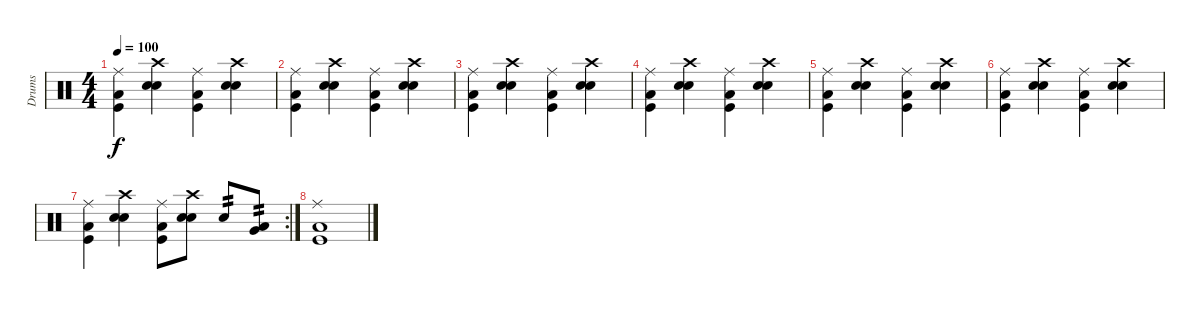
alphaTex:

\track ("Drums" "Drums") {instrument percussion}
\staff {score}
\articulation defaults
\ts (4 4)
\tempo 100
\clef neutral
\ks c
("Ride (middle)" "Kick (hit)" "Low Floor Tom (hit)").4{dy f} ("Crash high (hit)" "Snare (hit) 2" "Electric Snare (hit)").4 ("Ride (middle)" "Kick (hit)" "Low Floor Tom (hit)").4 ("Crash high (hit)" "Snare (hit) 2" "Electric Snare (hit)").4 |
("Ride (middle)" "Kick (hit)" "Low Floor Tom (hit)").4 ("Crash high (hit)" "Snare (hit) 2" "Electric Snare (hit)").4 ("Ride (middle)" "Kick (hit)" "Low Floor Tom (hit)").4 ("Crash high (hit)" "Snare (hit) 2" "Electric Snare (hit)").4 |
("Ride (middle)" "Kick (hit)" "Low Floor Tom (hit)").4 ("Crash high (hit)" "Snare (hit) 2" "Electric Snare (hit)").4 ("Ride (middle)" "Kick (hit)" "Low Floor Tom (hit)").4 ("Crash high (hit)" "Snare (hit) 2" "Electric Snare (hit)").4 |
("Ride (middle)" "Kick (hit)" "Low Floor Tom (hit)").4 ("Crash high (hit)" "Snare (hit) 2" "Electric Snare (hit)").4 ("Ride (middle)" "Kick (hit)" "Low Floor Tom (hit)").4 ("Crash high (hit)" "Snare (hit) 2" "Electric Snare (hit)").4 |
("Ride (middle)" "Kick (hit)" "Low Floor Tom (hit)").4 ("Crash high (hit)" "Snare (hit) 2" "Electric Snare (hit)").4 ("Ride (middle)" "Kick (hit)" "Low Floor Tom (hit)").4 ("Crash high (hit)" "Snare (hit) 2" "Electric Snare (hit)").4 |
("Ride (middle)" "Kick (hit)" "Low Floor Tom (hit)").4 ("Crash high (hit)" "Snare (hit) 2" "Electric Snare (hit)").4 ("Ride (middle)" "Kick (hit)" "Low Floor Tom (hit)").4 ("Crash high (hit)" "Snare (hit) 2" "Electric Snare (hit)").4 |
\rc 2
("Ride (middle)" "Kick (hit)" "Low Floor Tom (hit)").4 ("Crash high (hit)" "Snare (hit) 2" "Electric Snare (hit)").4 ("Ride (middle)" "Kick (hit)" "Low Floor Tom (hit)").8 ("Crash high (hit)" "Snare (hit) 2" "Electric Snare (hit)").8 "Snare (hit) 2".8{tp 2} ("Low Floor Tom (hit)" "Very Low Tom (hit)").8{tp 2} |
("Ride (middle)" "Kick (hit)" "Low Floor Tom (hit)").1
